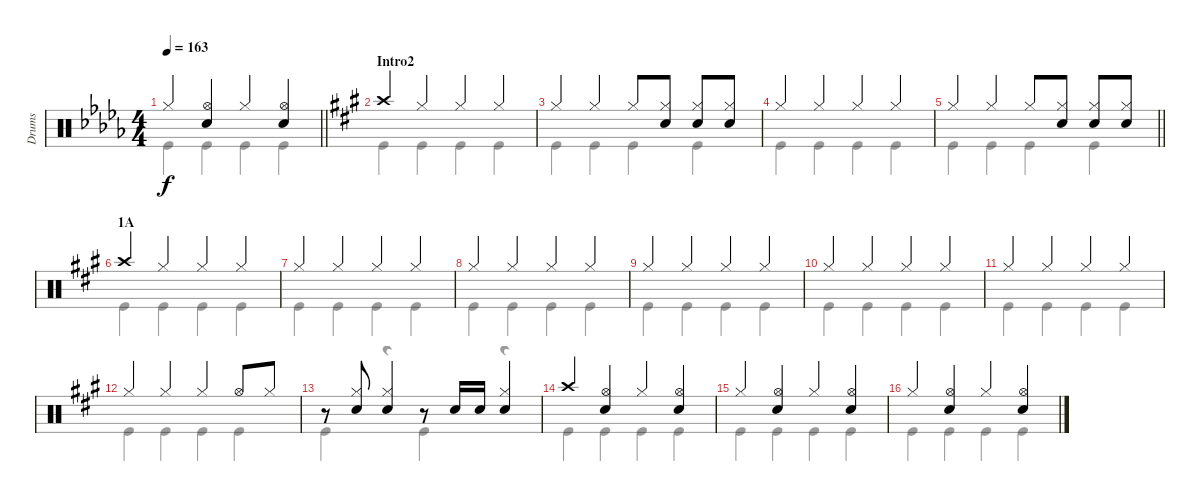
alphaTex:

\track ("Drums" "Drums") {instrument percussion}
\staff {score}
\articulation defaults
\voice
\ts (4 4)
\tempo 163
\clef neutral
\barLineRight lightlight
\ks db "Hi-Hat (closed)".4{dy f}
("Hi-Hat (open)" "Snare (hit) 2").4 "Hi-Hat (closed)".4 ("Hi-Hat (open)" "Snare (hit) 2").4 |
\section ("" "Intro2")
\ks a "Crash high (hit)".4 "Hi-Hat (closed)".4 "Hi-Hat (closed)".4 "Hi-Hat (closed)".4
|
"Hi-Hat (closed)".4 "Hi-Hat (closed)".4 "Hi-Hat (closed)".8 ("Hi-Hat (closed)" "Snare (hit) 2").8 ("Hi-Hat (closed)" "Snare (hit) 2").8 ("Hi-Hat (closed)" "Snare (hit) 2").8 |
"Hi-Hat (closed)".4 "Hi-Hat (closed)".4 "Hi-Hat (closed)".4 "Hi-Hat (closed)".4 |
\barLineRight lightlight "Hi-Hat (closed)".4 "Hi-Hat (closed)".4 "Hi-Hat (closed)".8
("Hi-Hat (closed)" "Snare (hit) 2").8 ("Hi-Hat (closed)" "Snare (hit) 2").8 ("Hi-Hat (closed)" "Snare (hit) 2").8 |
\section ("" "1A")
"Crash high (hit)".4 "Hi-Hat (closed)".4 "Hi-Hat (closed)".4 "Hi-Hat (closed)".4 |
"Hi-Hat (closed)".4 "Hi-Hat (closed)".4 "Hi-Hat (closed)".4 "Hi-Hat (closed)".4 |
"Hi-Hat (closed)".4 "Hi-Hat (closed)".4 "Hi-Hat (closed)".4 "Hi-Hat (closed)".4 |
"Hi-Hat (closed)".4 "Hi-Hat (closed)".4 "Hi-Hat (closed)".4 "Hi-Hat (closed)".4 |
"Hi-Hat (closed)".4 "Hi-Hat (closed)".4 "Hi-Hat (closed)".4 "Hi-Hat (closed)".4 |
"Hi-Hat (closed)".4 "Hi-Hat (closed)".4 "Hi-Hat (closed)".4 "Hi-Hat (closed)".4 |
"Hi-Hat (closed)".4 "Hi-Hat (closed)".4 "Hi-Hat (closed)".4 "Hi-Hat (open)".8 "Hi-Hat (closed)".8 |
r.8 ("Hi-Hat (closed)" "Snare (hit) 2").8 ("Hi-Hat (closed)" "Snare (hit) 2").4 r.8 "Snare (hit) 2".16 "Snare (hit) 2".16 ("Hi-Hat (closed)" "Snare (hit) 2").4 |
"Crash high (hit)".4 ("Hi-Hat (open)" "Snare (hit) 2").4 "Hi-Hat (closed)".4 ("Hi-Hat (open)" "Snare (hit) 2").4 |
"Hi-Hat (closed)".4 ("Hi-Hat (open)" "Snare (hit) 2").4 "Hi-Hat (closed)".4 ("Hi-Hat (open)" "Snare (hit) 2").4 |
"Hi-Hat (closed)".4 ("Hi-Hat (open)" "Snare (hit) 2").4 "Hi-Hat (closed)".4 ("Hi-Hat (open)" "Snare (hit) 2").4
\voice
\clef neutral
\ottava regular
\simile none
\barLineRight lightlight
\ks db "Kick (hit)".4{dy f} "Kick (hit)".4 "Kick (hit)".4 "Kick (hit)".4
|
\ks a "Kick (hit)".4 "Kick (hit)".4 "Kick (hit)".4 "Kick (hit)".4
|
"Kick (hit)".4 "Kick (hit)".4 "Kick (hit)".4 "Kick (hit)".4 |
"Kick (hit)".4 "Kick (hit)".4 "Kick (hit)".4 "Kick (hit)".4 |
\barLineRight lightlight "Kick (hit)".4 "Kick (hit)".4 "Kick (hit)".4 "Kick (hit)".4
|
"Kick (hit)".4 "Kick (hit)".4 "Kick (hit)".4 "Kick (hit)".4 |
"Kick (hit)".4 "Kick (hit)".4 "Kick (hit)".4 "Kick (hit)".4 |
"Kick (hit)".4 "Kick (hit)".4 "Kick (hit)".4 "Kick (hit)".4 |
"Kick (hit)".4 "Kick (hit)".4 "Kick (hit)".4 "Kick (hit)".4 |
"Kick (hit)".4 "Kick (hit)".4 "Kick (hit)".4 "Kick (hit)".4 |
"Kick (hit)".4 "Kick (hit)".4 "Kick (hit)".4 "Kick (hit)".4 |
"Kick (hit)".4 "Kick (hit)".4 "Kick (hit)".4 "Kick (hit)".4 |
"Kick (hit)".4 r.4 "Kick (hit)".4 r.4 |
"Kick (hit)".4 "Kick (hit)".4 "Kick (hit)".4 "Kick (hit)".4 |
"Kick (hit)".4 "Kick (hit)".4 "Kick (hit)".4 "Kick (hit)".4 |
"Kick (hit)".4 "Kick (hit)".4 "Kick (hit)".4 "Kick (hit)".4
